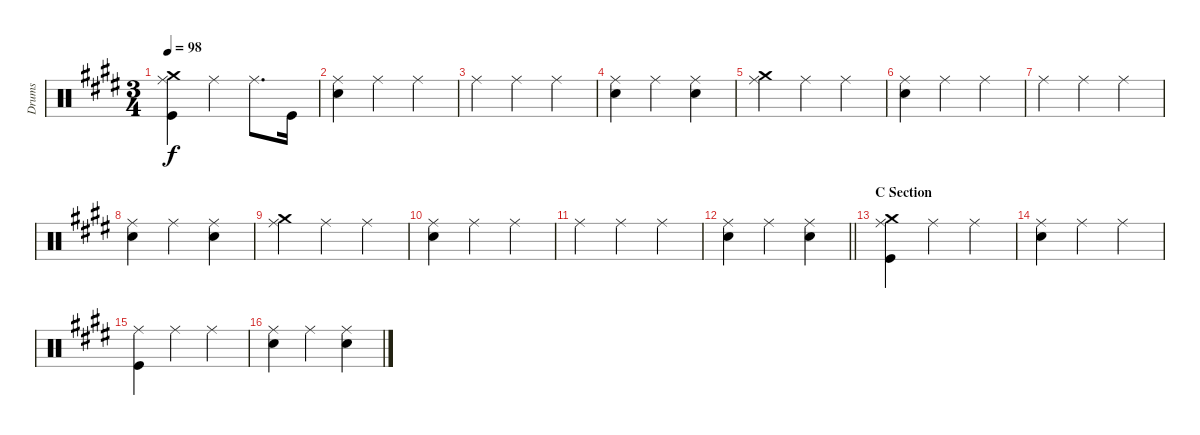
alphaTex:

\track ("Drums" "Drums") {instrument percussion}
\staff {score}
\articulation defaults
\ts (3 4)
\tempo 98
\clef neutral
\ks e
("Crash medium (hit)" "Ride (middle)" "Kick (hit)").4{dy f} "Ride (middle)".4 "Ride (middle)".8{d} "Kick (hit)".16 |
("Ride (middle)" "Snare (hit) 2").4 "Ride (middle)".4 "Ride (middle)".4 |
"Ride (middle)".4 "Ride (middle)".4 "Ride (middle)".4 |
("Ride (middle)" "Snare (hit) 2").4 "Ride (middle)".4 ("Ride (middle)" "Snare (hit) 2").4 |
("Crash medium (hit)" "Ride (middle)").4 "Ride (middle)".4 "Ride (middle)".4 |
("Ride (middle)" "Snare (hit) 2").4 "Ride (middle)".4 "Ride (middle)".4 |
"Ride (middle)".4 "Ride (middle)".4 "Ride (middle)".4 |
("Ride (middle)" "Snare (hit) 2").4 "Ride (middle)".4 ("Ride (middle)" "Snare (hit) 2").4 |
("Crash medium (hit)" "Ride (middle)").4 "Ride (middle)".4 "Ride (middle)".4 |
("Ride (middle)" "Snare (hit) 2").4 "Ride (middle)".4 "Ride (middle)".4 |
"Ride (middle)".4 "Ride (middle)".4 "Ride (middle)".4 |
\barLineRight lightlight
("Ride (middle)" "Snare (hit) 2").4 "Ride (middle)".4 ("Ride (middle)" "Snare (hit) 2").4 |
\section ("" "C Section")
("Crash medium (hit)" "Ride (middle)" "Kick (hit)").4 "Ride (middle)".4 "Ride (middle)".4 |
("Ride (middle)" "Snare (hit) 2").4 "Ride (middle)".4 "Ride (middle)".4 |
("Ride (middle)" "Kick (hit)").4 "Ride (middle)".4 "Ride (middle)".4 |
("Ride (middle)" "Snare (hit) 2").4 "Ride (middle)".4 ("Ride (middle)" "Snare (hit) 2").4
